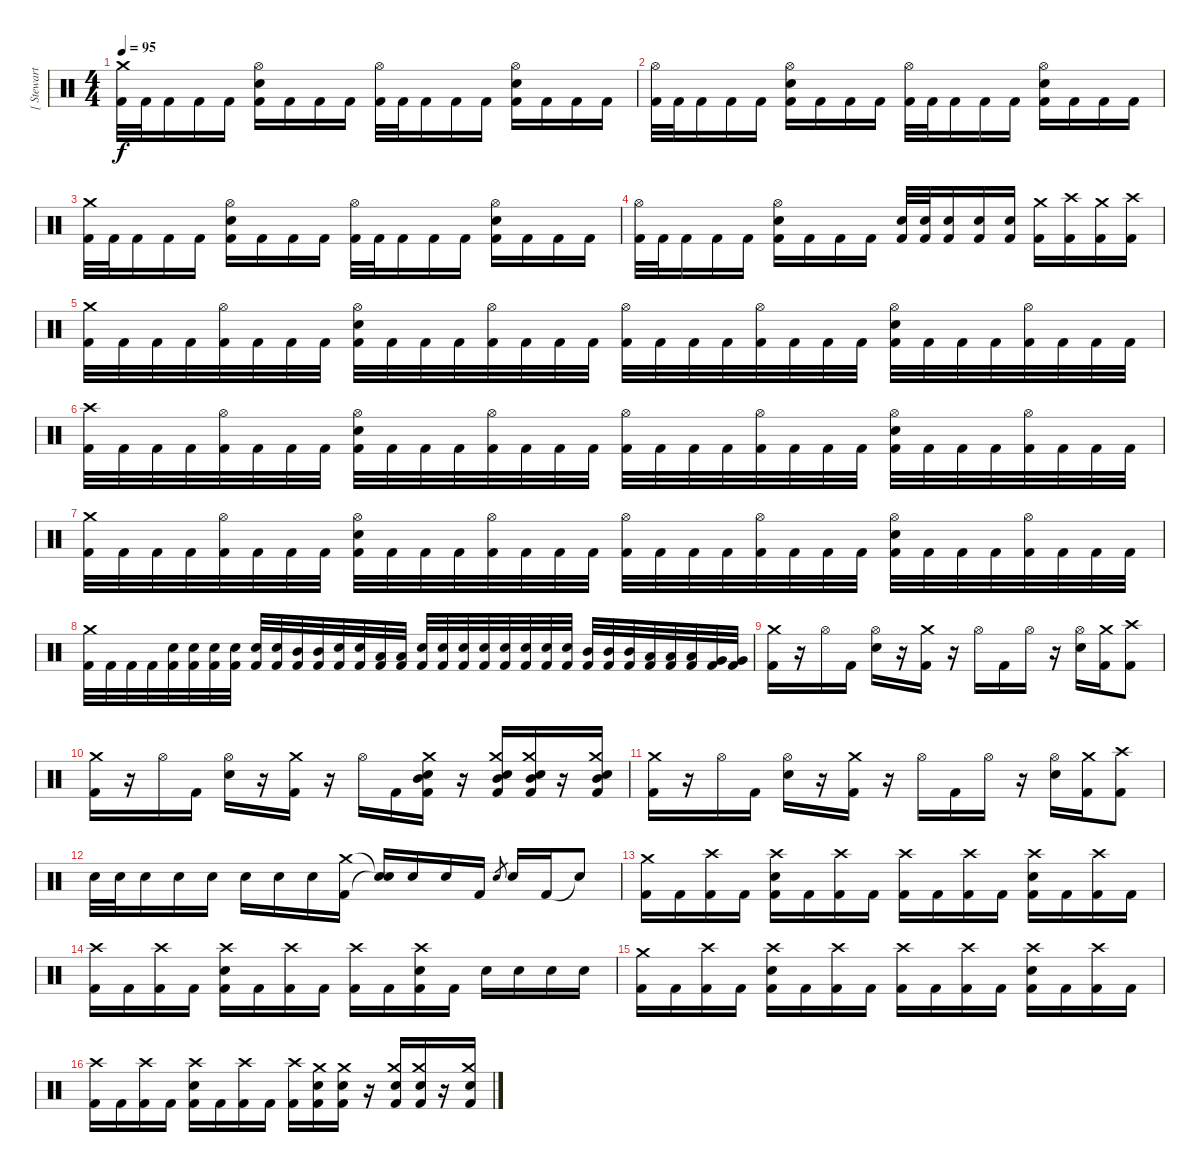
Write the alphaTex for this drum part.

\track ("[ Stewart ] " "[ Stewart ") {instrument percussion}
\staff {score}
\articulation defaults
\ts (4 4)
\tempo 95
\clef neutral
\ks c
("Kick (hit) 2" "Crash medium (hit)").32{dy f} "Kick (hit) 2".32 "Kick (hit) 2".16 "Kick (hit) 2".16 "Kick (hit) 2".16 ("Kick (hit) 2" "Electric Snare (hit)" "Hi-Hat (open)").16 "Kick (hit) 2".16 "Kick (hit) 2".16 "Kick (hit) 2".16 ("Kick (hit) 2" "Hi-Hat (open)").32 "Kick (hit) 2".32 "Kick (hit) 2".16 "Kick (hit) 2".16 "Kick (hit) 2".16 ("Kick (hit) 2" "Electric Snare (hit)" "Hi-Hat (open)").16 "Kick (hit) 2".16 "Kick (hit) 2".16 "Kick (hit) 2".16 |
("Kick (hit) 2" "Hi-Hat (open)").32 "Kick (hit) 2".32 "Kick (hit) 2".16 "Kick (hit) 2".16 "Kick (hit) 2".16 ("Kick (hit) 2" "Electric Snare (hit)" "Hi-Hat (open)").16 "Kick (hit) 2".16 "Kick (hit) 2".16 "Kick (hit) 2".16 ("Kick (hit) 2" "Hi-Hat (open)").32 "Kick (hit) 2".32 "Kick (hit) 2".16 "Kick (hit) 2".16 "Kick (hit) 2".16 ("Kick (hit) 2" "Electric Snare (hit)" "Hi-Hat (open)").16 "Kick (hit) 2".16 "Kick (hit) 2".16 "Kick (hit) 2".16 |
("Kick (hit) 2" "Crash medium (hit)").32 "Kick (hit) 2".32 "Kick (hit) 2".16 "Kick (hit) 2".16 "Kick (hit) 2".16 ("Kick (hit) 2" "Electric Snare (hit)" "Hi-Hat (open)").16 "Kick (hit) 2".16 "Kick (hit) 2".16 "Kick (hit) 2".16 ("Kick (hit) 2" "Hi-Hat (open)").32 "Kick (hit) 2".32 "Kick (hit) 2".16 "Kick (hit) 2".16 "Kick (hit) 2".16 ("Kick (hit) 2" "Electric Snare (hit)" "Hi-Hat (open)").16 "Kick (hit) 2".16 "Kick (hit) 2".16 "Kick (hit) 2".16 |
("Kick (hit) 2" "Hi-Hat (open)").32 "Kick (hit) 2".32 "Kick (hit) 2".16 "Kick (hit) 2".16 "Kick (hit) 2".16 ("Kick (hit) 2" "Electric Snare (hit)" "Hi-Hat (open)").16 "Kick (hit) 2".16 "Kick (hit) 2".16 "Kick (hit) 2".16 ("Kick (hit) 2" "Electric Snare (hit)").32 ("Kick (hit) 2" "Electric Snare (hit)").32 ("Kick (hit) 2" "Electric Snare (hit)").16 ("Kick (hit) 2" "Electric Snare (hit)").16 ("Kick (hit) 2" "Electric Snare (hit)").16 ("Kick (hit) 2" "Crash medium (hit)").16 ("Kick (hit) 2" "Crash high (hit)").16 ("Kick (hit) 2" "Crash medium (hit)").16 ("Kick (hit) 2" "Crash high (hit)").16 |
("Kick (hit) 2" "Crash medium (hit)").32 "Kick (hit) 2".32 "Kick (hit) 2".32 "Kick (hit) 2".32 ("Kick (hit) 2" "Hi-Hat (open)").32 "Kick (hit) 2".32 "Kick (hit) 2".32 "Kick (hit) 2".32 ("Kick (hit) 2" "Electric Snare (hit)" "Hi-Hat (open)").32 "Kick (hit) 2".32 "Kick (hit) 2".32 "Kick (hit) 2".32 ("Kick (hit) 2" "Hi-Hat (open)").32 "Kick (hit) 2".32 "Kick (hit) 2".32 "Kick (hit) 2".32 ("Kick (hit) 2" "Hi-Hat (open)").32 "Kick (hit) 2".32 "Kick (hit) 2".32 "Kick (hit) 2".32 ("Kick (hit) 2" "Hi-Hat (open)").32 "Kick (hit) 2".32 "Kick (hit) 2".32 "Kick (hit) 2".32 ("Kick (hit) 2" "Electric Snare (hit)" "Hi-Hat (open)").32 "Kick (hit) 2".32 "Kick (hit) 2".32 "Kick (hit) 2".32 ("Kick (hit) 2" "Hi-Hat (open)").32 "Kick (hit) 2".32 "Kick (hit) 2".32 "Kick (hit) 2".32 |
("Kick (hit) 2" "Crash high (hit)").32 "Kick (hit) 2".32 "Kick (hit) 2".32 "Kick (hit) 2".32 ("Kick (hit) 2" "Hi-Hat (open)").32 "Kick (hit) 2".32 "Kick (hit) 2".32 "Kick (hit) 2".32 ("Kick (hit) 2" "Electric Snare (hit)" "Hi-Hat (open)").32 "Kick (hit) 2".32 "Kick (hit) 2".32 "Kick (hit) 2".32 ("Kick (hit) 2" "Hi-Hat (open)").32 "Kick (hit) 2".32 "Kick (hit) 2".32 "Kick (hit) 2".32 ("Kick (hit) 2" "Hi-Hat (open)").32 "Kick (hit) 2".32 "Kick (hit) 2".32 "Kick (hit) 2".32 ("Kick (hit) 2" "Hi-Hat (open)").32 "Kick (hit) 2".32 "Kick (hit) 2".32 "Kick (hit) 2".32 ("Kick (hit) 2" "Electric Snare (hit)" "Hi-Hat (open)").32 "Kick (hit) 2".32 "Kick (hit) 2".32 "Kick (hit) 2".32 ("Kick (hit) 2" "Hi-Hat (open)").32 "Kick (hit) 2".32 "Kick (hit) 2".32 "Kick (hit) 2".32 |
("Kick (hit) 2" "Crash medium (hit)").32 "Kick (hit) 2".32 "Kick (hit) 2".32 "Kick (hit) 2".32 ("Kick (hit) 2" "Hi-Hat (open)").32 "Kick (hit) 2".32 "Kick (hit) 2".32 "Kick (hit) 2".32 ("Kick (hit) 2" "Electric Snare (hit)" "Hi-Hat (open)").32 "Kick (hit) 2".32 "Kick (hit) 2".32 "Kick (hit) 2".32 ("Kick (hit) 2" "Hi-Hat (open)").32 "Kick (hit) 2".32 "Kick (hit) 2".32 "Kick (hit) 2".32 ("Kick (hit) 2" "Hi-Hat (open)").32 "Kick (hit) 2".32 "Kick (hit) 2".32 "Kick (hit) 2".32 ("Kick (hit) 2" "Hi-Hat (open)").32 "Kick (hit) 2".32 "Kick (hit) 2".32 "Kick (hit) 2".32 ("Kick (hit) 2" "Electric Snare (hit)" "Hi-Hat (open)").32 "Kick (hit) 2".32 "Kick (hit) 2".32 "Kick (hit) 2".32 ("Kick (hit) 2" "Hi-Hat (open)").32 "Kick (hit) 2".32 "Kick (hit) 2".32 "Kick (hit) 2".32 |
("Kick (hit) 2" "Crash medium (hit)").32 "Kick (hit) 2".32 "Kick (hit) 2".32 "Kick (hit) 2".32 ("Electric Snare (hit)" "Kick (hit) 2").32 ("Electric Snare (hit)" "Kick (hit) 2").32 ("Electric Snare (hit)" "Kick (hit) 2").32 ("Electric Snare (hit)" "Kick (hit) 2").32 ("Electric Snare (hit)" "Kick (hit) 2").32 ("Electric Snare (hit)" "Kick (hit) 2").32 ("Mid Tom (hit)" "Kick (hit) 2").32 ("Mid Tom (hit)" "Kick (hit) 2").32 ("Electric Snare (hit)" "Kick (hit) 2").32 ("Electric Snare (hit)" "Kick (hit) 2").32 ("Low Tom (hit)" "Kick (hit) 2").32 ("Low Tom (hit)" "Kick (hit) 2").32 ("Electric Snare (hit)" "Kick (hit) 2").32 ("Electric Snare (hit)" "Kick (hit) 2").32 ("Electric Snare (hit)" "Kick (hit) 2").32 ("Electric Snare (hit)" "Kick (hit) 2").32 ("Electric Snare (hit)" "Kick (hit) 2").32 ("Electric Snare (hit)" "Kick (hit) 2").32 ("Electric Snare (hit)" "Kick (hit) 2").32 ("Electric Snare (hit)" "Kick (hit) 2").32 ("Mid Tom (hit)" "Kick (hit) 2").32 ("Mid Tom (hit)" "Kick (hit) 2").32 ("Mid Tom (hit)" "Kick (hit) 2").32 ("Low Tom (hit)" "Kick (hit) 2").32 ("Low Tom (hit)" "Kick (hit) 2").32 ("Low Tom (hit)" "Kick (hit) 2").32 ("Very Low Tom (hit)" "Kick (hit) 2").32 ("Very Low Tom (hit)" "Kick (hit) 2").32 |
("Kick (hit) 2" "Crash medium (hit)").16 r.16 "Hi-Hat (open)".16 "Kick (hit) 2".16 ("Electric Snare (hit)" "Hi-Hat (open)").16 r.16 ("Kick (hit) 2" "Crash medium (hit)").16 r.16 "Hi-Hat (open)".16 "Kick (hit) 2".16 "Hi-Hat (open)".16 r.16 ("Electric Snare (hit)" "Hi-Hat (open)").16 ("Kick (hit) 2" "Crash medium (hit)").16 ("Kick (hit) 2" "Crash high (hit)").8 |
("Kick (hit) 2" "Crash medium (hit)").16 r.16 "Hi-Hat (open)".16 "Kick (hit) 2".16 ("Electric Snare (hit)" "Hi-Hat (open)").16 r.16 ("Kick (hit) 2" "Crash medium (hit)").16 r.16 "Hi-Hat (open)".16 "Kick (hit) 2".16 ("Electric Snare (hit)" "Mid Tom (hit)" "Kick (hit) 2" "Crash medium (hit)").16 r.16 ("Electric Snare (hit)" "Mid Tom (hit)" "Kick (hit) 2" "Crash medium (hit)").16 ("Electric Snare (hit)" "Mid Tom (hit)" "Kick (hit) 2" "Crash medium (hit)").16 r.16 ("Electric Snare (hit)" "Mid Tom (hit)" "Kick (hit) 2" "Crash medium (hit)").16 |
("Kick (hit) 2" "Crash medium (hit)").16 r.16 "Hi-Hat (open)".16 "Kick (hit) 2".16 ("Electric Snare (hit)" "Hi-Hat (open)").16 r.16 ("Kick (hit) 2" "Crash medium (hit)").16 r.16 "Hi-Hat (open)".16 "Kick (hit) 2".16 "Hi-Hat (open)".16 r.16 ("Electric Snare (hit)" "Hi-Hat (open)").16 ("Kick (hit) 2" "Crash medium (hit)").16 ("Kick (hit) 2" "Crash high (hit)").8 |
"Electric Snare (hit)".32 "Electric Snare (hit)".32 "Electric Snare (hit)".16 "Electric Snare (hit)".16 "Electric Snare (hit)".16 "Electric Snare (hit)".16 "Electric Snare (hit)".16 "Electric Snare (hit)".16 ("Kick (hit) 2" "Crash medium (hit)").16 ("Snare (hit)"{t} "Snare (hit)"{t}).16 "Electric Snare (hit)".16 "Electric Snare (hit)".16 "Kick (hit) 2".16 "Electric Snare (hit)".8{gr} "Electric Snare (hit)".16 "Kick (hit) 2".16 "Snare (hit)"{t}.8 |
("Kick (hit) 2" "Crash medium (hit)").16 "Kick (hit) 2".16 ("Kick (hit) 2" "Crash high (hit)").16 "Kick (hit) 2".16 ("Kick (hit) 2" "Electric Snare (hit)" "Crash high (hit)").16 "Kick (hit) 2".16 ("Kick (hit) 2" "Crash high (hit)").16 "Kick (hit) 2".16 ("Kick (hit) 2" "Crash high (hit)").16 "Kick (hit) 2".16 ("Kick (hit) 2" "Crash high (hit)").16 "Kick (hit) 2".16 ("Kick (hit) 2" "Electric Snare (hit)" "Crash high (hit)").16 "Kick (hit) 2".16 ("Kick (hit) 2" "Crash high (hit)").16 "Kick (hit) 2".16 |
("Kick (hit) 2" "Crash high (hit)").16 "Kick (hit) 2".16 ("Kick (hit) 2" "Crash high (hit)").16 "Kick (hit) 2".16 ("Kick (hit) 2" "Electric Snare (hit)" "Crash high (hit)").16 "Kick (hit) 2".16 ("Kick (hit) 2" "Crash high (hit)").16 "Kick (hit) 2".16 ("Kick (hit) 2" "Crash high (hit)").16 "Kick (hit) 2".16 ("Kick (hit) 2" "Electric Snare (hit)" "Crash high (hit)").16 "Kick (hit) 2".16 "Electric Snare (hit)".16 "Electric Snare (hit)".16 "Electric Snare (hit)".16 "Electric Snare (hit)".16 |
("Kick (hit) 2" "Crash medium (hit)").16 "Kick (hit) 2".16 ("Kick (hit) 2" "Crash high (hit)").16 "Kick (hit) 2".16 ("Kick (hit) 2" "Electric Snare (hit)" "Crash high (hit)").16 "Kick (hit) 2".16 ("Kick (hit) 2" "Crash high (hit)").16 "Kick (hit) 2".16 ("Kick (hit) 2" "Crash high (hit)").16 "Kick (hit) 2".16 ("Kick (hit) 2" "Crash high (hit)").16 "Kick (hit) 2".16 ("Kick (hit) 2" "Electric Snare (hit)" "Crash high (hit)").16 "Kick (hit) 2".16 ("Kick (hit) 2" "Crash high (hit)").16 "Kick (hit) 2".16 |
("Kick (hit) 2" "Crash high (hit)").16 "Kick (hit) 2".16 ("Kick (hit) 2" "Crash high (hit)").16 "Kick (hit) 2".16 ("Kick (hit) 2" "Electric Snare (hit)" "Crash high (hit)").16 "Kick (hit) 2".16 ("Kick (hit) 2" "Crash high (hit)").16 "Kick (hit) 2".16 ("Kick (hit) 2" "Crash high (hit)").16 ("Kick (hit) 2" "Electric Snare (hit)" "Crash medium (hit)").16 ("Kick (hit) 2" "Electric Snare (hit)" "Crash medium (hit)").16 r.16 ("Kick (hit) 2" "Electric Snare (hit)" "Crash medium (hit)").16 ("Kick (hit) 2" "Electric Snare (hit)" "Crash medium (hit)").16 r.16 ("Kick (hit) 2" "Electric Snare (hit)" "Crash medium (hit)").16
